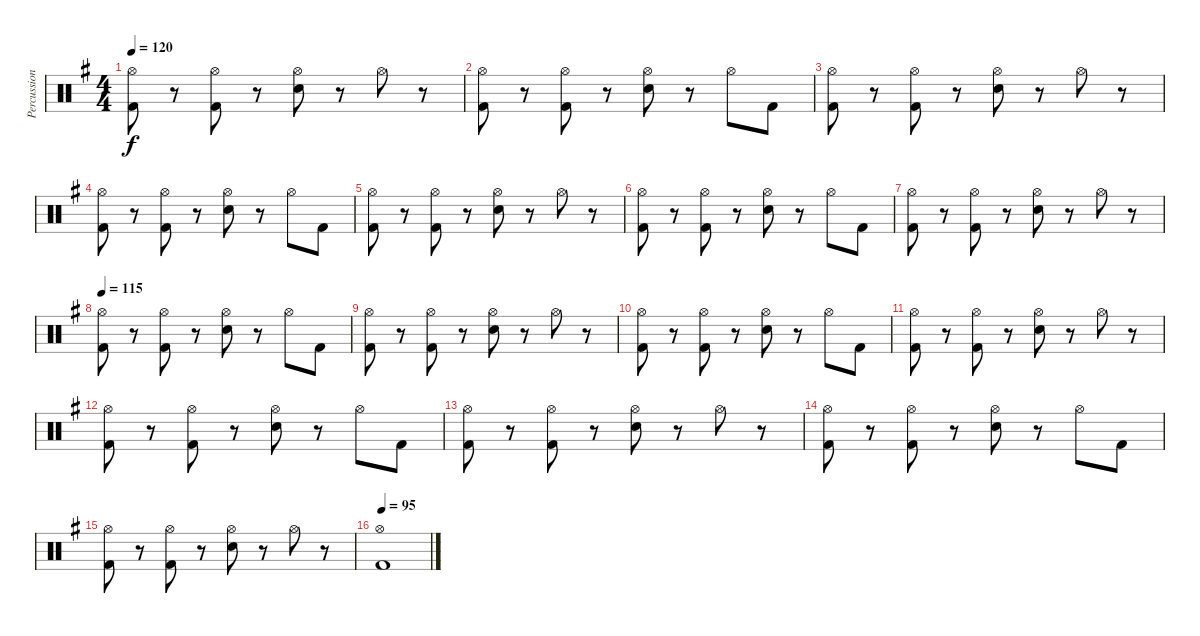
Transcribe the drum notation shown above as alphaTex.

\track ("Percussion" "Percussion") {instrument percussion}
\staff {score}
\articulation defaults
\ts (4 4)
\tempo 120
\clef neutral
\ks g
("Hi-Hat (open)" "Kick (hit) 2").8{dy f} r.8 ("Hi-Hat (open)" "Kick (hit) 2").8 r.8 ("Hi-Hat (open)" "Electric Snare (hit)").8 r.8 "Hi-Hat (open)".8 r.8 |
("Hi-Hat (open)" "Kick (hit) 2").8 r.8 ("Hi-Hat (open)" "Kick (hit) 2").8 r.8 ("Hi-Hat (open)" "Electric Snare (hit)").8 r.8 "Hi-Hat (open)".8 "Kick (hit) 2".8 |
("Hi-Hat (open)" "Kick (hit) 2").8 r.8 ("Hi-Hat (open)" "Kick (hit) 2").8 r.8 ("Hi-Hat (open)" "Electric Snare (hit)").8 r.8 "Hi-Hat (open)".8 r.8 |
("Hi-Hat (open)" "Kick (hit) 2").8 r.8 ("Hi-Hat (open)" "Kick (hit) 2").8 r.8 ("Hi-Hat (open)" "Electric Snare (hit)").8 r.8 "Hi-Hat (open)".8 "Kick (hit) 2".8 |
("Hi-Hat (open)" "Kick (hit) 2").8 r.8 ("Hi-Hat (open)" "Kick (hit) 2").8 r.8 ("Hi-Hat (open)" "Electric Snare (hit)").8 r.8 "Hi-Hat (open)".8 r.8 |
("Hi-Hat (open)" "Kick (hit) 2").8 r.8 ("Hi-Hat (open)" "Kick (hit) 2").8 r.8 ("Hi-Hat (open)" "Electric Snare (hit)").8 r.8 "Hi-Hat (open)".8 "Kick (hit) 2".8 |
("Hi-Hat (open)" "Kick (hit) 2").8 r.8 ("Hi-Hat (open)" "Kick (hit) 2").8 r.8 ("Hi-Hat (open)" "Electric Snare (hit)").8 r.8 "Hi-Hat (open)".8 r.8 |
\tempo 115
("Hi-Hat (open)" "Kick (hit) 2").8 r.8 ("Hi-Hat (open)" "Kick (hit) 2").8 r.8 ("Hi-Hat (open)" "Electric Snare (hit)").8 r.8 "Hi-Hat (open)".8 "Kick (hit) 2".8 |
("Hi-Hat (open)" "Kick (hit) 2").8 r.8 ("Hi-Hat (open)" "Kick (hit) 2").8 r.8 ("Hi-Hat (open)" "Electric Snare (hit)").8 r.8 "Hi-Hat (open)".8 r.8 |
("Hi-Hat (open)" "Kick (hit) 2").8 r.8 ("Hi-Hat (open)" "Kick (hit) 2").8 r.8 ("Hi-Hat (open)" "Electric Snare (hit)").8 r.8 "Hi-Hat (open)".8 "Kick (hit) 2".8 |
("Hi-Hat (open)" "Kick (hit) 2").8 r.8 ("Hi-Hat (open)" "Kick (hit) 2").8 r.8 ("Hi-Hat (open)" "Electric Snare (hit)").8 r.8 "Hi-Hat (open)".8 r.8 |
("Hi-Hat (open)" "Kick (hit) 2").8 r.8 ("Hi-Hat (open)" "Kick (hit) 2").8 r.8 ("Hi-Hat (open)" "Electric Snare (hit)").8 r.8 "Hi-Hat (open)".8 "Kick (hit) 2".8 |
("Hi-Hat (open)" "Kick (hit) 2").8 r.8 ("Hi-Hat (open)" "Kick (hit) 2").8 r.8 ("Hi-Hat (open)" "Electric Snare (hit)").8 r.8 "Hi-Hat (open)".8 r.8 |
("Hi-Hat (open)" "Kick (hit) 2").8 r.8 ("Hi-Hat (open)" "Kick (hit) 2").8 r.8 ("Hi-Hat (open)" "Electric Snare (hit)").8 r.8 "Hi-Hat (open)".8 "Kick (hit) 2".8 |
("Hi-Hat (open)" "Kick (hit) 2").8 r.8 ("Hi-Hat (open)" "Kick (hit) 2").8 r.8 ("Hi-Hat (open)" "Electric Snare (hit)").8 r.8 "Hi-Hat (open)".8 r.8 |
\tempo 95
("Hi-Hat (open)" "Kick (hit) 2").1
